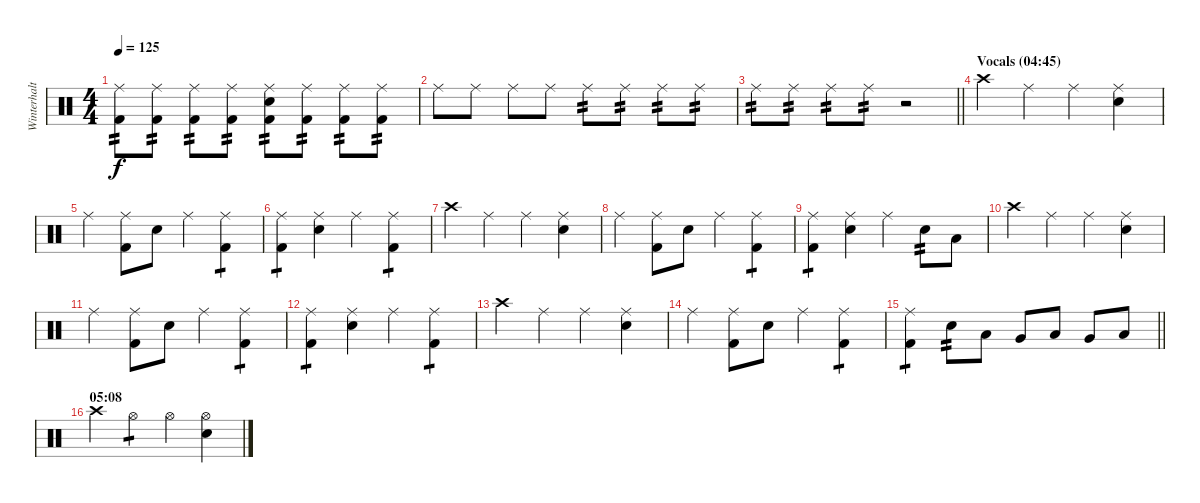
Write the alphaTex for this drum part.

\track ("Winterhalten" "Winterhalt") {instrument percussion}
\staff {score}
\articulation defaults
\ts (4 4)
\tempo 125
\clef neutral
\ks c
("Ride (middle)" "Kick (hit) 2").8{tp 2 dy f} ("Ride (middle)" "Kick (hit) 2").8{tp 2} ("Ride (middle)" "Kick (hit) 2").8{tp 2} ("Ride (middle)" "Kick (hit) 2").8{tp 2} ("Ride (middle)" "Snare (hit) 2" "Kick (hit) 2").8{tp 2} ("Ride (middle)" "Kick (hit) 2").8{tp 2} ("Ride (middle)" "Kick (hit) 2").8{tp 2} ("Ride (middle)" "Kick (hit) 2").8{tp 2} |
"Ride (middle)".8 "Ride (middle)".8 "Ride (middle)".8 "Ride (middle)".8 "Ride (middle)".8{tp 2} "Ride (middle)".8{tp 2} "Ride (middle)".8{tp 2} "Ride (middle)".8{tp 2} |
\barLineRight lightlight "Ride (middle)".8{tp 2} "Ride (middle)".8{tp 2} "Ride (middle)".8{tp 2} "Ride (middle)".8{tp 2}
r.2 |
\section ("" "Vocals (04:45)")
"Crash high (hit)".4 "Ride (middle)".4 "Ride (middle)".4 ("Ride (middle)" "Snare (hit) 2").4 |
"Ride (middle)".4 ("Ride (middle)" "Kick (hit) 2").8 "Snare (hit) 2".8 "Ride (middle)".4 ("Ride (middle)" "Kick (hit) 2").4{tp 1} |
("Ride (middle)" "Kick (hit) 2").4{tp 1} ("Ride (middle)" "Snare (hit) 2").4 "Ride (middle)".4 ("Ride (middle)" "Kick (hit) 2").4{tp 1} |
"Crash high (hit)".4 "Ride (middle)".4 "Ride (middle)".4 ("Ride (middle)" "Snare (hit) 2").4 |
"Ride (middle)".4 ("Ride (middle)" "Kick (hit) 2").8 "Snare (hit) 2".8 "Ride (middle)".4 ("Ride (middle)" "Kick (hit) 2").4{tp 1} |
("Ride (middle)" "Kick (hit) 2").4{tp 1} ("Ride (middle)" "Snare (hit) 2").4 "Ride (middle)".4 "Snare (hit) 2".8{tp 2} "Low Tom (hit)".8 |
"Crash high (hit)".4 "Ride (middle)".4 "Ride (middle)".4 ("Ride (middle)" "Snare (hit) 2").4 |
"Ride (middle)".4 ("Ride (middle)" "Kick (hit) 2").8 "Snare (hit) 2".8 "Ride (middle)".4 ("Ride (middle)" "Kick (hit) 2").4{tp 1} |
("Ride (middle)" "Kick (hit) 2").4{tp 1} ("Ride (middle)" "Snare (hit) 2").4 "Ride (middle)".4 ("Ride (middle)" "Kick (hit) 2").4{tp 1} |
"Crash high (hit)".4 "Ride (middle)".4 "Ride (middle)".4 ("Ride (middle)" "Snare (hit) 2").4 |
"Ride (middle)".4 ("Ride (middle)" "Kick (hit) 2").8 "Snare (hit) 2".8 "Ride (middle)".4 ("Ride (middle)" "Kick (hit) 2").4{tp 1} |
\barLineRight lightlight
("Ride (middle)" "Kick (hit) 2").4{tp 1} "Snare (hit) 2".8{tp 2} "Low Tom (hit)".8 "Very Low Tom (hit)".8 "Low Tom (hit)".8 "Very Low Tom (hit)".8 "Low Floor Tom (hit)".8 |
\section ("" "05:08")
"Crash high (hit)".4 "Hi-Hat (open)".4{tp 1} "Hi-Hat (open)".4 ("Hi-Hat (open)" "Snare (hit) 2").4
